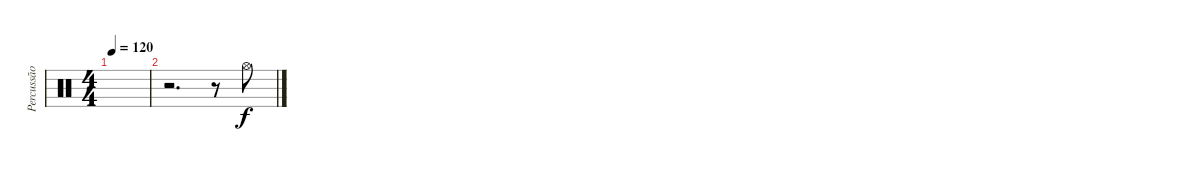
\track ("Percussão" "Percussão") {instrument percussion}
\staff {score}
\articulation defaults
\ts (4 4)
\tempo 120
\clef neutral
\ks c
|
r.2{d} r.8 "Hi-Hat (open)".8
